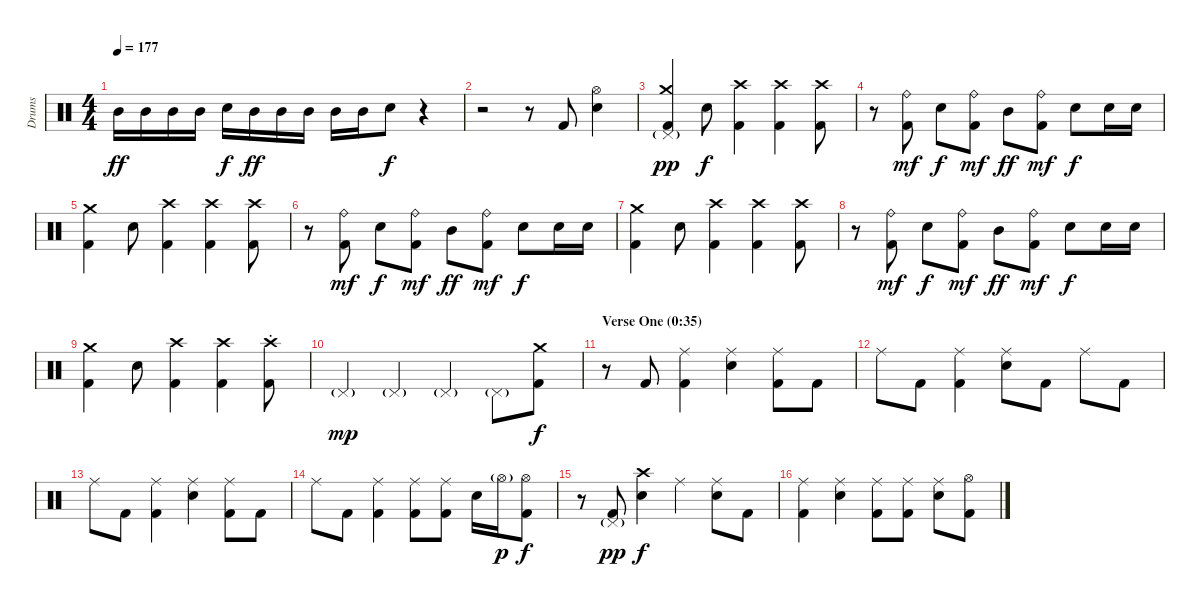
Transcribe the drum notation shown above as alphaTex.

\track ("Drums" "Drums") {instrument percussion}
\staff {score}
\articulation defaults
\ts (4 4)
\tempo 177
\clef neutral
\ks c "Mid Tom (hit)".16{dy ff} "Mid Tom (hit)".16 "Mid Tom (hit)".16 "Mid Tom (hit)".16 "Snare (hit) 2".16{dy f} "Mid Tom (hit)".16{dy ff} "Mid Tom (hit)".16 "Mid Tom (hit)".16 "Mid Tom (hit)".16 "Mid Tom (hit)".16 "Snare (hit) 2".8{dy f}
r.4 |
r.2 r.8 "Kick (hit) 2".8 ("Hi-Hat (open)" "Snare (hit) 2").4 |
("Crash medium (hit)" "Pedal Hi-Hat (hit)"{g} "Kick (hit) 2").4{dy pp} "Snare (hit) 2".8{dy f} ("Crash high (hit)" "Kick (hit) 2").4 ("Crash high (hit)" "Kick (hit) 2").4 ("Crash high (hit)" "Kick (hit) 2").8 |
r.8 ("Ride (bell)" "Kick (hit) 2").8{dy mf} "Snare (hit) 2".8{dy f} ("Ride (bell)" "Kick (hit) 2").8{dy mf} "Mid Tom (hit)".8{dy ff} ("Ride (bell)" "Kick (hit) 2").8{dy mf} "Snare (hit) 2".8{dy f} "Snare (hit) 2".16 "Snare (hit) 2".16 |
("Crash medium (hit)" "Kick (hit) 2").4 "Snare (hit) 2".8 ("Crash high (hit)" "Kick (hit) 2").4 ("Crash high (hit)" "Kick (hit) 2").4 ("Crash high (hit)" "Kick (hit) 2").8 |
r.8 ("Ride (bell)" "Kick (hit) 2").8{dy mf} "Snare (hit) 2".8{dy f} ("Ride (bell)" "Kick (hit) 2").8{dy mf} "Mid Tom (hit)".8{dy ff} ("Ride (bell)" "Kick (hit) 2").8{dy mf} "Snare (hit) 2".8{dy f} "Snare (hit) 2".16 "Snare (hit) 2".16 |
("Crash medium (hit)" "Kick (hit) 2").4 "Snare (hit) 2".8 ("Crash high (hit)" "Kick (hit) 2").4 ("Crash high (hit)" "Kick (hit) 2").4 ("Crash high (hit)" "Kick (hit) 2").8 |
r.8 ("Ride (bell)" "Kick (hit) 2").8{dy mf} "Snare (hit) 2".8{dy f} ("Ride (bell)" "Kick (hit) 2").8{dy mf} "Mid Tom (hit)".8{dy ff} ("Ride (bell)" "Kick (hit) 2").8{dy mf} "Snare (hit) 2".8{dy f} "Snare (hit) 2".16 "Snare (hit) 2".16 |
("Crash medium (hit)" "Kick (hit) 2").4 "Snare (hit) 2".8 ("Crash high (hit)" "Kick (hit) 2").4 ("Crash high (hit)" "Kick (hit) 2").4 ("Crash high (hit)"{st} "Kick (hit) 2").8 |
"Pedal Hi-Hat (hit)"{g}.4{dy mp} "Pedal Hi-Hat (hit)"{g}.4 "Pedal Hi-Hat (hit)"{g}.4 "Pedal Hi-Hat (hit)"{g}.8 ("Crash medium (hit)" "Kick (hit) 2").8{dy f} |
\section ("" "Verse One (0:35)")
r.8 "Kick (hit) 2".8 ("Ride (middle)" "Kick (hit) 2").4 ("Ride (middle)" "Snare (hit) 2").4 ("Ride (middle)" "Kick (hit) 2").8 "Kick (hit) 2".8 |
"Ride (middle)".8 "Kick (hit) 2".8 ("Ride (middle)" "Kick (hit) 2").4 ("Ride (middle)" "Snare (hit) 2").8 "Kick (hit) 2".8 "Ride (middle)".8 "Kick (hit) 2".8 |
"Ride (middle)".8 "Kick (hit) 2".8 ("Ride (middle)" "Kick (hit) 2").4 ("Ride (middle)" "Snare (hit) 2").4 ("Ride (middle)" "Kick (hit) 2").8 "Kick (hit) 2".8 |
"Ride (middle)".8 "Kick (hit) 2".8 ("Ride (middle)" "Kick (hit) 2").4 ("Ride (middle)" "Kick (hit) 2").8 ("Ride (middle)" "Kick (hit) 2").8 "Snare (hit) 2".16 "Hi-Hat (open)"{g}.16{dy p} ("Hi-Hat (open)" "Kick (hit) 2").8{dy f} |
r.8 ("Pedal Hi-Hat (hit)"{g} "Kick (hit) 2").8{dy pp} ("Crash high (hit)" "Snare (hit) 2").4{dy f} "Ride (middle)".4 ("Ride (middle)" "Snare (hit) 2").8 "Kick (hit) 2".8 |
("Ride (middle)" "Kick (hit) 2").4 ("Ride (middle)" "Snare (hit) 2").4 ("Ride (middle)" "Kick (hit) 2").8 ("Ride (middle)" "Kick (hit) 2").8 ("Ride (middle)" "Snare (hit) 2").8 ("Hi-Hat (open)" "Kick (hit) 2").8
